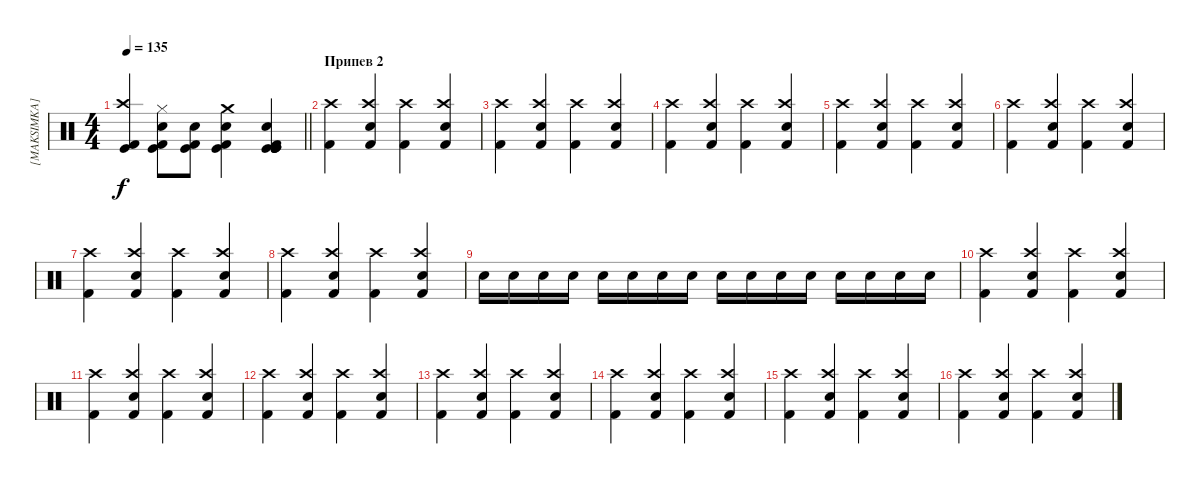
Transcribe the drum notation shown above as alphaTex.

\track ("[MAKSIMKA]" "[MAKSIMKA]") {instrument percussion}
\staff {score}
\articulation defaults
\ts (4 4)
\tempo 135
\clef neutral
\barLineRight lightlight
\ks c
("Kick (hit) 2" "Crash high (hit)" "Kick (hit)").4{dy f} ("Kick (hit) 2" "Snare (hit) 2" "Hi-Hat (closed)" "Kick (hit)").8 ("Kick (hit) 2" "Snare (hit) 2" "Kick (hit)").8 ("Kick (hit) 2" "Snare (hit) 2" "Crash medium (hit)" "Kick (hit)").4 ("Kick (hit) 2" "Snare (hit) 2" "Kick (hit)" "Kick (hit)" "Kick (hit)" "Kick (hit)").4 |
\section ("" "Припев 2")
("Crash high (hit)" "Kick (hit) 2").4 ("Crash high (hit)" "Kick (hit) 2" "Snare (hit) 2").4 ("Crash high (hit)" "Kick (hit) 2").4 ("Crash high (hit)" "Kick (hit) 2" "Snare (hit) 2").4 |
("Crash high (hit)" "Kick (hit) 2").4 ("Crash high (hit)" "Kick (hit) 2" "Snare (hit) 2").4 ("Crash high (hit)" "Kick (hit) 2").4 ("Crash high (hit)" "Kick (hit) 2" "Snare (hit) 2").4 |
("Crash high (hit)" "Kick (hit) 2").4 ("Crash high (hit)" "Kick (hit) 2" "Snare (hit) 2").4 ("Crash high (hit)" "Kick (hit) 2").4 ("Crash high (hit)" "Kick (hit) 2" "Snare (hit) 2").4 |
("Crash high (hit)" "Kick (hit) 2").4 ("Crash high (hit)" "Kick (hit) 2" "Snare (hit) 2").4 ("Crash high (hit)" "Kick (hit) 2").4 ("Crash high (hit)" "Kick (hit) 2" "Snare (hit) 2").4 |
("Crash high (hit)" "Kick (hit) 2").4 ("Crash high (hit)" "Kick (hit) 2" "Snare (hit) 2").4 ("Crash high (hit)" "Kick (hit) 2").4 ("Crash high (hit)" "Kick (hit) 2" "Snare (hit) 2").4 |
("Crash high (hit)" "Kick (hit) 2").4 ("Crash high (hit)" "Kick (hit) 2" "Snare (hit) 2").4 ("Crash high (hit)" "Kick (hit) 2").4 ("Crash high (hit)" "Kick (hit) 2" "Snare (hit) 2").4 |
("Crash high (hit)" "Kick (hit) 2").4 ("Crash high (hit)" "Kick (hit) 2" "Snare (hit) 2").4 ("Crash high (hit)" "Kick (hit) 2").4 ("Crash high (hit)" "Kick (hit) 2" "Snare (hit) 2").4 |
"Snare (hit) 2".16 "Snare (hit) 2".16 "Snare (hit) 2".16 "Snare (hit) 2".16 "Snare (hit) 2".16 "Snare (hit) 2".16 "Snare (hit) 2".16 "Snare (hit) 2".16 "Snare (hit) 2".16 "Snare (hit) 2".16 "Snare (hit) 2".16 "Snare (hit) 2".16 "Snare (hit) 2".16 "Snare (hit) 2".16 "Snare (hit) 2".16 "Snare (hit) 2".16 |
("Crash high (hit)" "Kick (hit) 2").4 ("Crash high (hit)" "Kick (hit) 2" "Snare (hit) 2").4 ("Crash high (hit)" "Kick (hit) 2").4 ("Crash high (hit)" "Kick (hit) 2" "Snare (hit) 2").4 |
("Crash high (hit)" "Kick (hit) 2").4 ("Crash high (hit)" "Kick (hit) 2" "Snare (hit) 2").4 ("Crash high (hit)" "Kick (hit) 2").4 ("Crash high (hit)" "Kick (hit) 2" "Snare (hit) 2").4 |
("Crash high (hit)" "Kick (hit) 2").4 ("Crash high (hit)" "Kick (hit) 2" "Snare (hit) 2").4 ("Crash high (hit)" "Kick (hit) 2").4 ("Crash high (hit)" "Kick (hit) 2" "Snare (hit) 2").4 |
("Crash high (hit)" "Kick (hit) 2").4 ("Crash high (hit)" "Kick (hit) 2" "Snare (hit) 2").4 ("Crash high (hit)" "Kick (hit) 2").4 ("Crash high (hit)" "Kick (hit) 2" "Snare (hit) 2").4 |
("Crash high (hit)" "Kick (hit) 2").4 ("Crash high (hit)" "Kick (hit) 2" "Snare (hit) 2").4 ("Crash high (hit)" "Kick (hit) 2").4 ("Crash high (hit)" "Kick (hit) 2" "Snare (hit) 2").4 |
("Crash high (hit)" "Kick (hit) 2").4 ("Crash high (hit)" "Kick (hit) 2" "Snare (hit) 2").4 ("Crash high (hit)" "Kick (hit) 2").4 ("Crash high (hit)" "Kick (hit) 2" "Snare (hit) 2").4 |
("Crash high (hit)" "Kick (hit) 2").4 ("Crash high (hit)" "Kick (hit) 2" "Snare (hit) 2").4 ("Crash high (hit)" "Kick (hit) 2").4 ("Crash high (hit)" "Kick (hit) 2" "Snare (hit) 2").4
